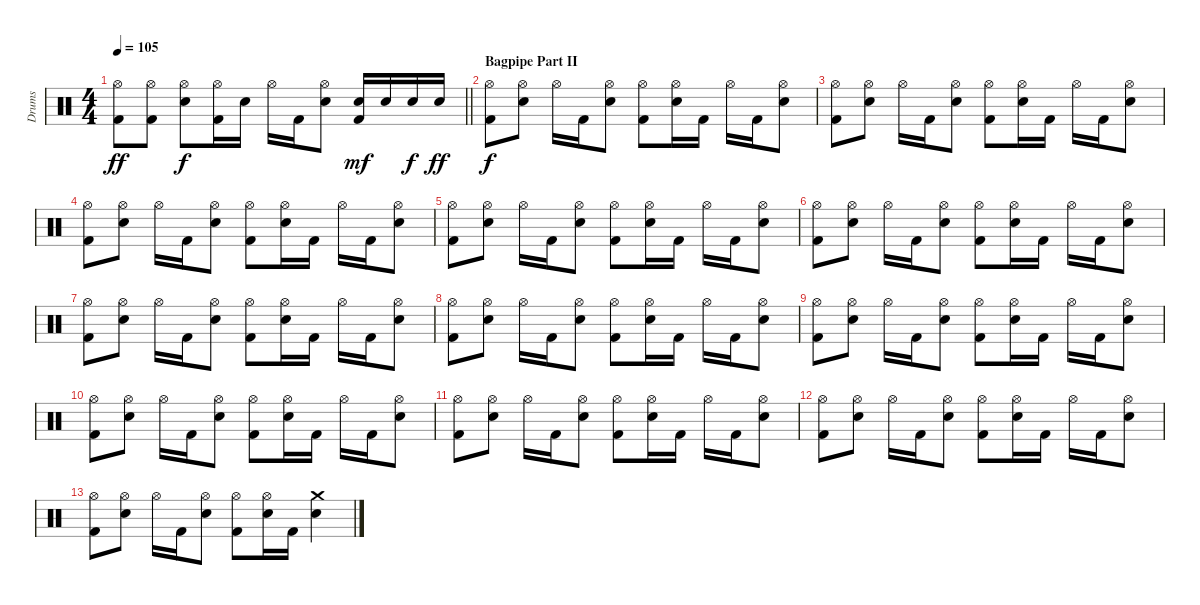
\track ("Drums" "Drums") {instrument percussion}
\staff {score}
\articulation defaults
\ts (4 4)
\tempo 105
\clef neutral
\barLineRight lightlight
\ks c
("Hi-Hat (open)" "Kick (hit) 2").8{dy ff} ("Hi-Hat (open)" "Kick (hit) 2").8 ("Hi-Hat (open)" "Electric Snare (hit)").8{dy f} ("Hi-Hat (open)" "Kick (hit) 2").16 "Electric Snare (hit)".16 "Hi-Hat (open)".16 "Kick (hit) 2".16 ("Hi-Hat (open)" "Electric Snare (hit)").8 ("Electric Snare (hit)" "Kick (hit) 2").16{dy mf} "Electric Snare (hit)".16 "Electric Snare (hit)".16{dy f} "Electric Snare (hit)".16{dy ff} |
\section ("" "Bagpipe Part II")
("Hi-Hat (open)" "Kick (hit) 2").8{dy f} ("Hi-Hat (open)" "Electric Snare (hit)").8 "Hi-Hat (open)".16 "Kick (hit) 2".16 ("Hi-Hat (open)" "Electric Snare (hit)").8 ("Hi-Hat (open)" "Kick (hit) 2").8 ("Hi-Hat (open)" "Electric Snare (hit)").16 "Kick (hit) 2".16 "Hi-Hat (open)".16 "Kick (hit) 2".16 ("Hi-Hat (open)" "Electric Snare (hit)").8 |
("Hi-Hat (open)" "Kick (hit) 2").8 ("Hi-Hat (open)" "Electric Snare (hit)").8 "Hi-Hat (open)".16 "Kick (hit) 2".16 ("Hi-Hat (open)" "Electric Snare (hit)").8 ("Hi-Hat (open)" "Kick (hit) 2").8 ("Hi-Hat (open)" "Electric Snare (hit)").16 "Kick (hit) 2".16 "Hi-Hat (open)".16 "Kick (hit) 2".16 ("Hi-Hat (open)" "Electric Snare (hit)").8 |
("Hi-Hat (open)" "Kick (hit) 2").8 ("Hi-Hat (open)" "Electric Snare (hit)").8 "Hi-Hat (open)".16 "Kick (hit) 2".16 ("Hi-Hat (open)" "Electric Snare (hit)").8 ("Hi-Hat (open)" "Kick (hit) 2").8 ("Hi-Hat (open)" "Electric Snare (hit)").16 "Kick (hit) 2".16 "Hi-Hat (open)".16 "Kick (hit) 2".16 ("Hi-Hat (open)" "Electric Snare (hit)").8 |
("Hi-Hat (open)" "Kick (hit) 2").8 ("Hi-Hat (open)" "Electric Snare (hit)").8 "Hi-Hat (open)".16 "Kick (hit) 2".16 ("Hi-Hat (open)" "Electric Snare (hit)").8 ("Hi-Hat (open)" "Kick (hit) 2").8 ("Hi-Hat (open)" "Electric Snare (hit)").16 "Kick (hit) 2".16 "Hi-Hat (open)".16 "Kick (hit) 2".16 ("Hi-Hat (open)" "Electric Snare (hit)").8 |
("Hi-Hat (open)" "Kick (hit) 2").8 ("Hi-Hat (open)" "Electric Snare (hit)").8 "Hi-Hat (open)".16 "Kick (hit) 2".16 ("Hi-Hat (open)" "Electric Snare (hit)").8 ("Hi-Hat (open)" "Kick (hit) 2").8 ("Hi-Hat (open)" "Electric Snare (hit)").16 "Kick (hit) 2".16 "Hi-Hat (open)".16 "Kick (hit) 2".16 ("Hi-Hat (open)" "Electric Snare (hit)").8 |
("Hi-Hat (open)" "Kick (hit) 2").8 ("Hi-Hat (open)" "Electric Snare (hit)").8 "Hi-Hat (open)".16 "Kick (hit) 2".16 ("Hi-Hat (open)" "Electric Snare (hit)").8 ("Hi-Hat (open)" "Kick (hit) 2").8 ("Hi-Hat (open)" "Electric Snare (hit)").16 "Kick (hit) 2".16 "Hi-Hat (open)".16 "Kick (hit) 2".16 ("Hi-Hat (open)" "Electric Snare (hit)").8 |
("Hi-Hat (open)" "Kick (hit) 2").8 ("Hi-Hat (open)" "Electric Snare (hit)").8 "Hi-Hat (open)".16 "Kick (hit) 2".16 ("Hi-Hat (open)" "Electric Snare (hit)").8 ("Hi-Hat (open)" "Kick (hit) 2").8 ("Hi-Hat (open)" "Electric Snare (hit)").16 "Kick (hit) 2".16 "Hi-Hat (open)".16 "Kick (hit) 2".16 ("Hi-Hat (open)" "Electric Snare (hit)").8 |
("Hi-Hat (open)" "Kick (hit) 2").8 ("Hi-Hat (open)" "Electric Snare (hit)").8 "Hi-Hat (open)".16 "Kick (hit) 2".16 ("Hi-Hat (open)" "Electric Snare (hit)").8 ("Hi-Hat (open)" "Kick (hit) 2").8 ("Hi-Hat (open)" "Electric Snare (hit)").16 "Kick (hit) 2".16 "Hi-Hat (open)".16 "Kick (hit) 2".16 ("Hi-Hat (open)" "Electric Snare (hit)").8 |
("Hi-Hat (open)" "Kick (hit) 2").8 ("Hi-Hat (open)" "Electric Snare (hit)").8 "Hi-Hat (open)".16 "Kick (hit) 2".16 ("Hi-Hat (open)" "Electric Snare (hit)").8 ("Hi-Hat (open)" "Kick (hit) 2").8 ("Hi-Hat (open)" "Electric Snare (hit)").16 "Kick (hit) 2".16 "Hi-Hat (open)".16 "Kick (hit) 2".16 ("Hi-Hat (open)" "Electric Snare (hit)").8 |
("Hi-Hat (open)" "Kick (hit) 2").8 ("Hi-Hat (open)" "Electric Snare (hit)").8 "Hi-Hat (open)".16 "Kick (hit) 2".16 ("Hi-Hat (open)" "Electric Snare (hit)").8 ("Hi-Hat (open)" "Kick (hit) 2").8 ("Hi-Hat (open)" "Electric Snare (hit)").16 "Kick (hit) 2".16 "Hi-Hat (open)".16 "Kick (hit) 2".16 ("Hi-Hat (open)" "Electric Snare (hit)").8 |
("Hi-Hat (open)" "Kick (hit) 2").8 ("Hi-Hat (open)" "Electric Snare (hit)").8 "Hi-Hat (open)".16 "Kick (hit) 2".16 ("Hi-Hat (open)" "Electric Snare (hit)").8 ("Hi-Hat (open)" "Kick (hit) 2").8 ("Hi-Hat (open)" "Electric Snare (hit)").16 "Kick (hit) 2".16 "Hi-Hat (open)".16 "Kick (hit) 2".16 ("Hi-Hat (open)" "Electric Snare (hit)").8 |
("Hi-Hat (open)" "Kick (hit) 2").8 ("Hi-Hat (open)" "Electric Snare (hit)").8 "Hi-Hat (open)".16 "Kick (hit) 2".16 ("Hi-Hat (open)" "Electric Snare (hit)").8 ("Hi-Hat (open)" "Kick (hit) 2").8 ("Hi-Hat (open)" "Electric Snare (hit)").16 "Kick (hit) 2".16 ("Crash medium (hit)" "Electric Snare (hit)").4
